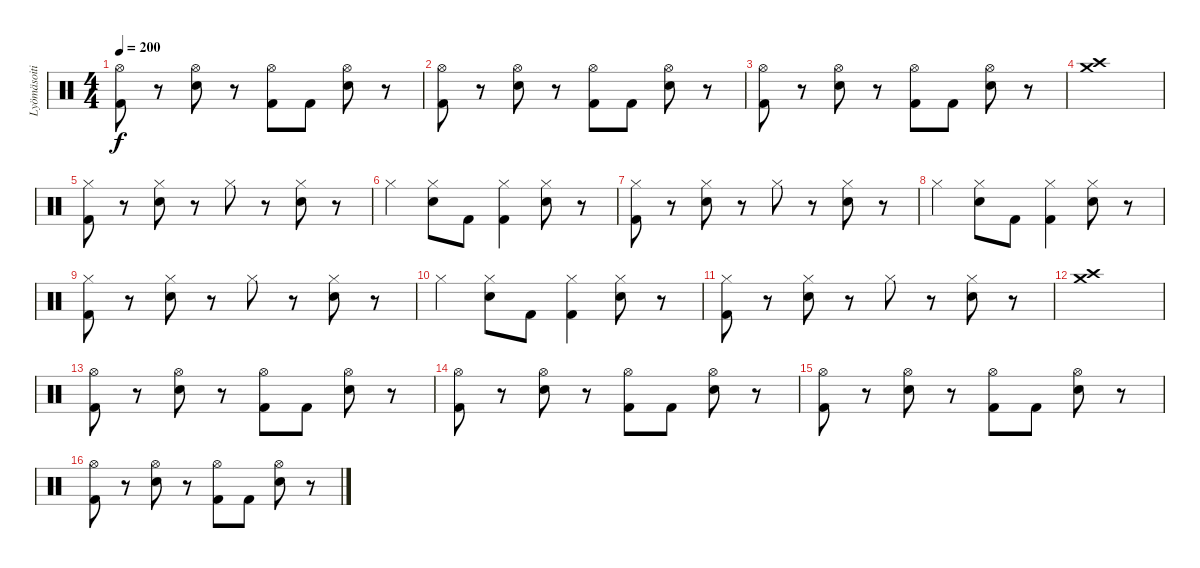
\track ("Lyömäsoitin" "Lyömäsoiti") {instrument percussion}
\staff {score}
\articulation defaults
\ts (4 4)
\tempo 200
\clef neutral
\ks c
("Hi-Hat (open)" "Kick (hit) 2").8{dy f} r.8 ("Hi-Hat (open)" "Snare (hit) 2").8 r.8 ("Hi-Hat (open)" "Kick (hit) 2").8 "Kick (hit) 2".8 ("Hi-Hat (open)" "Snare (hit) 2").8 r.8 |
("Hi-Hat (open)" "Kick (hit) 2").8 r.8 ("Hi-Hat (open)" "Snare (hit) 2").8 r.8 ("Hi-Hat (open)" "Kick (hit) 2").8 "Kick (hit) 2".8 ("Hi-Hat (open)" "Snare (hit) 2").8 r.8 |
("Hi-Hat (open)" "Kick (hit) 2").8 r.8 ("Hi-Hat (open)" "Snare (hit) 2").8 r.8 ("Hi-Hat (open)" "Kick (hit) 2").8 "Kick (hit) 2".8 ("Hi-Hat (open)" "Snare (hit) 2").8 r.8 |
("Crash high (hit)" "Crash medium (hit)").1 |
("Hi-Hat (closed)" "Kick (hit) 2").8{volume 8} r.8 ("Hi-Hat (closed)" "Snare (hit) 2").8 r.8 "Hi-Hat (closed)".8 r.8 ("Hi-Hat (closed)" "Snare (hit) 2").8 r.8 |
"Hi-Hat (closed)".4 ("Hi-Hat (closed)" "Snare (hit) 2").8 "Kick (hit) 2".8 ("Hi-Hat (closed)" "Kick (hit) 2").4 ("Hi-Hat (closed)" "Snare (hit) 2").8 r.8 |
("Hi-Hat (closed)" "Kick (hit) 2").8{volume 8} r.8 ("Hi-Hat (closed)" "Snare (hit) 2").8 r.8 "Hi-Hat (closed)".8 r.8 ("Hi-Hat (closed)" "Snare (hit) 2").8 r.8 |
"Hi-Hat (closed)".4 ("Hi-Hat (closed)" "Snare (hit) 2").8 "Kick (hit) 2".8 ("Hi-Hat (closed)" "Kick (hit) 2").4 ("Hi-Hat (closed)" "Snare (hit) 2").8 r.8 |
("Hi-Hat (closed)" "Kick (hit) 2").8{volume 8} r.8 ("Hi-Hat (closed)" "Snare (hit) 2").8 r.8 "Hi-Hat (closed)".8 r.8 ("Hi-Hat (closed)" "Snare (hit) 2").8 r.8 |
"Hi-Hat (closed)".4 ("Hi-Hat (closed)" "Snare (hit) 2").8 "Kick (hit) 2".8 ("Hi-Hat (closed)" "Kick (hit) 2").4 ("Hi-Hat (closed)" "Snare (hit) 2").8 r.8 |
("Hi-Hat (closed)" "Kick (hit) 2").8{volume 8} r.8 ("Hi-Hat (closed)" "Snare (hit) 2").8 r.8 "Hi-Hat (closed)".8 r.8 ("Hi-Hat (closed)" "Snare (hit) 2").8 r.8 |
("Crash high (hit)" "Crash medium (hit)").1 |
("Hi-Hat (open)" "Kick (hit) 2").8{volume 11} r.8 ("Hi-Hat (open)" "Snare (hit) 2").8 r.8 ("Hi-Hat (open)" "Kick (hit) 2").8 "Kick (hit) 2".8 ("Hi-Hat (open)" "Snare (hit) 2").8 r.8 |
("Hi-Hat (open)" "Kick (hit) 2").8 r.8 ("Hi-Hat (open)" "Snare (hit) 2").8 r.8 ("Hi-Hat (open)" "Kick (hit) 2").8 "Kick (hit) 2".8 ("Hi-Hat (open)" "Snare (hit) 2").8 r.8 |
("Hi-Hat (open)" "Kick (hit) 2").8 r.8 ("Hi-Hat (open)" "Snare (hit) 2").8 r.8 ("Hi-Hat (open)" "Kick (hit) 2").8 "Kick (hit) 2".8 ("Hi-Hat (open)" "Snare (hit) 2").8 r.8 |
("Hi-Hat (open)" "Kick (hit) 2").8 r.8 ("Hi-Hat (open)" "Snare (hit) 2").8 r.8 ("Hi-Hat (open)" "Kick (hit) 2").8 "Kick (hit) 2".8 ("Hi-Hat (open)" "Snare (hit) 2").8 r.8
